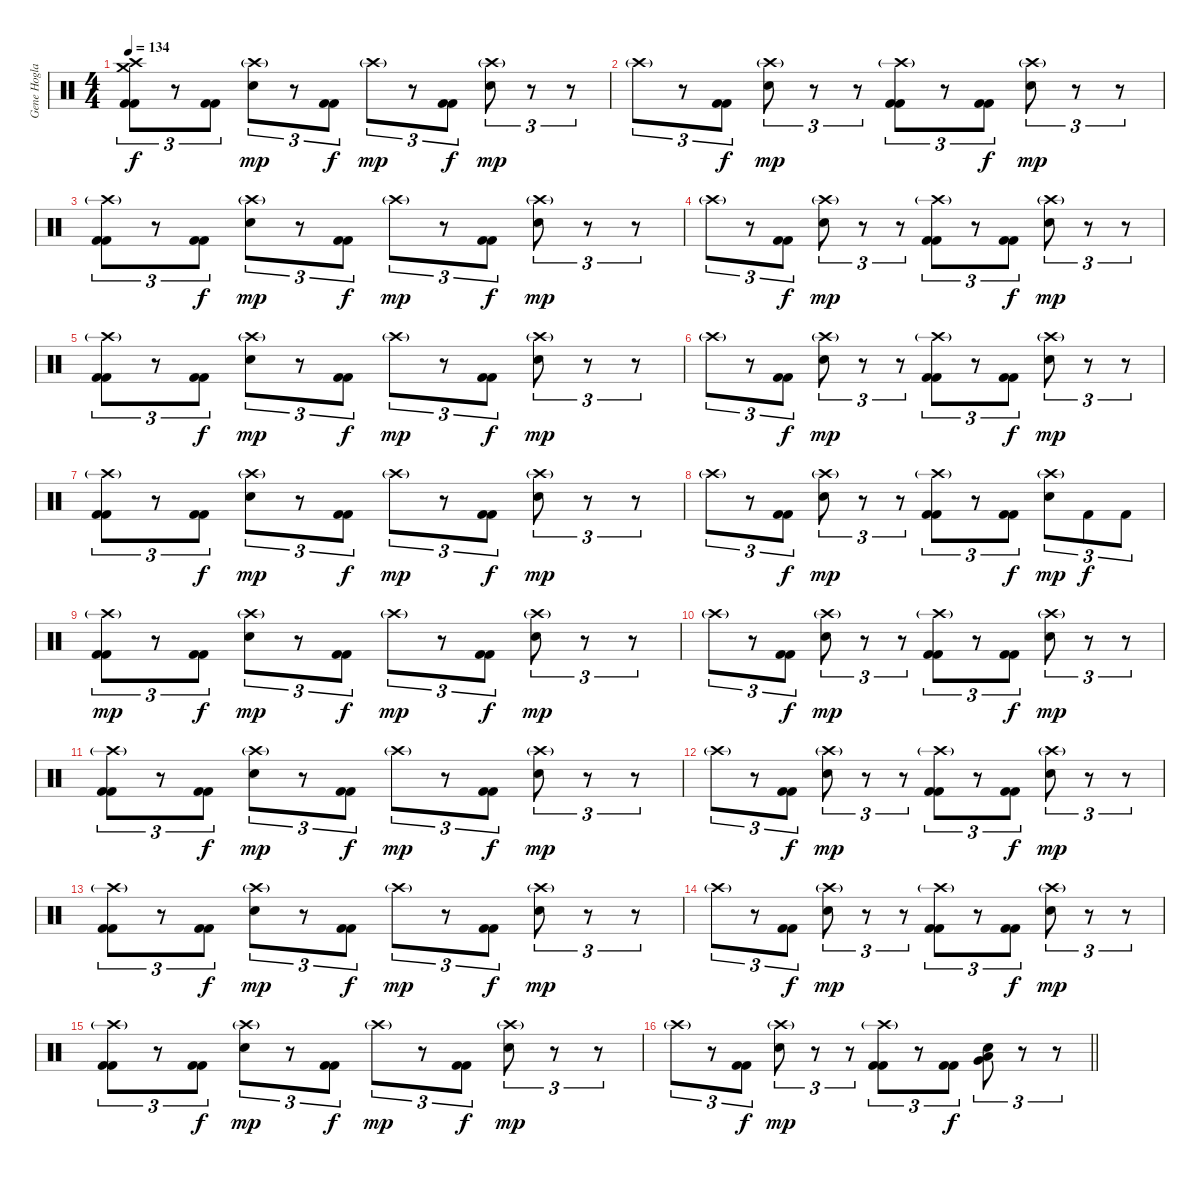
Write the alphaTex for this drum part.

\track ("Gene Hoglan" "Gene Hogla") {instrument percussion}
\staff {score}
\articulation defaults
\ts (4 4)
\tempo 134
\clef neutral
\ks c
("Crash high (hit)" "Crash medium (hit)" "Kick (hit) 2" "Kick (hit) 2").8{tu (3 2) dy f} r.8{tu (3 2)} ("Kick (hit) 2" "Kick (hit) 2").8{tu (3 2)} ("Crash high (hit)"{g} "Electric Snare (hit)").8{tu (3 2) dy mp} r.8{tu (3 2)} ("Kick (hit) 2" "Kick (hit) 2").8{tu (3 2) dy f} "Crash high (hit)"{g}.8{tu (3 2) dy mp} r.8{tu (3 2)} ("Kick (hit) 2" "Kick (hit) 2").8{tu (3 2) dy f} ("Crash high (hit)"{g} "Electric Snare (hit)").8{tu (3 2) dy mp} r.8{tu (3 2)} r.8{tu (3 2)} |
"Crash high (hit)"{g}.8{tu (3 2)} r.8{tu (3 2)} ("Kick (hit) 2" "Kick (hit) 2").8{tu (3 2) dy f} ("Crash high (hit)"{g} "Electric Snare (hit)").8{tu (3 2) dy mp} r.8{tu (3 2)} r.8{tu (3 2)} ("Crash high (hit)"{g} "Kick (hit) 2" "Kick (hit) 2").8{tu (3 2)} r.8{tu (3 2)} ("Kick (hit) 2" "Kick (hit) 2").8{tu (3 2) dy f} ("Crash high (hit)"{g} "Electric Snare (hit)").8{tu (3 2) dy mp} r.8{tu (3 2)} r.8{tu (3 2)} |
("Crash high (hit)"{g} "Kick (hit) 2" "Kick (hit) 2").8{tu (3 2)} r.8{tu (3 2)} ("Kick (hit) 2" "Kick (hit) 2").8{tu (3 2) dy f} ("Crash high (hit)"{g} "Electric Snare (hit)").8{tu (3 2) dy mp} r.8{tu (3 2)} ("Kick (hit) 2" "Kick (hit) 2").8{tu (3 2) dy f} "Crash high (hit)"{g}.8{tu (3 2) dy mp} r.8{tu (3 2)} ("Kick (hit) 2" "Kick (hit) 2").8{tu (3 2) dy f} ("Crash high (hit)"{g} "Electric Snare (hit)").8{tu (3 2) dy mp} r.8{tu (3 2)} r.8{tu (3 2)} |
"Crash high (hit)"{g}.8{tu (3 2)} r.8{tu (3 2)} ("Kick (hit) 2" "Kick (hit) 2").8{tu (3 2) dy f} ("Crash high (hit)"{g} "Electric Snare (hit)").8{tu (3 2) dy mp} r.8{tu (3 2)} r.8{tu (3 2)} ("Crash high (hit)"{g} "Kick (hit) 2" "Kick (hit) 2").8{tu (3 2)} r.8{tu (3 2)} ("Kick (hit) 2" "Kick (hit) 2").8{tu (3 2) dy f} ("Crash high (hit)"{g} "Electric Snare (hit)").8{tu (3 2) dy mp} r.8{tu (3 2)} r.8{tu (3 2)} |
("Crash high (hit)"{g} "Kick (hit) 2" "Kick (hit) 2").8{tu (3 2)} r.8{tu (3 2)} ("Kick (hit) 2" "Kick (hit) 2").8{tu (3 2) dy f} ("Crash high (hit)"{g} "Electric Snare (hit)").8{tu (3 2) dy mp} r.8{tu (3 2)} ("Kick (hit) 2" "Kick (hit) 2").8{tu (3 2) dy f} "Crash high (hit)"{g}.8{tu (3 2) dy mp} r.8{tu (3 2)} ("Kick (hit) 2" "Kick (hit) 2").8{tu (3 2) dy f} ("Crash high (hit)"{g} "Electric Snare (hit)").8{tu (3 2) dy mp} r.8{tu (3 2)} r.8{tu (3 2)} |
"Crash high (hit)"{g}.8{tu (3 2)} r.8{tu (3 2)} ("Kick (hit) 2" "Kick (hit) 2").8{tu (3 2) dy f} ("Crash high (hit)"{g} "Electric Snare (hit)").8{tu (3 2) dy mp} r.8{tu (3 2)} r.8{tu (3 2)} ("Crash high (hit)"{g} "Kick (hit) 2" "Kick (hit) 2").8{tu (3 2)} r.8{tu (3 2)} ("Kick (hit) 2" "Kick (hit) 2").8{tu (3 2) dy f} ("Crash high (hit)"{g} "Electric Snare (hit)").8{tu (3 2) dy mp} r.8{tu (3 2)} r.8{tu (3 2)} |
("Crash high (hit)"{g} "Kick (hit) 2" "Kick (hit) 2").8{tu (3 2)} r.8{tu (3 2)} ("Kick (hit) 2" "Kick (hit) 2").8{tu (3 2) dy f} ("Crash high (hit)"{g} "Electric Snare (hit)").8{tu (3 2) dy mp} r.8{tu (3 2)} ("Kick (hit) 2" "Kick (hit) 2").8{tu (3 2) dy f} "Crash high (hit)"{g}.8{tu (3 2) dy mp} r.8{tu (3 2)} ("Kick (hit) 2" "Kick (hit) 2").8{tu (3 2) dy f} ("Crash high (hit)"{g} "Electric Snare (hit)").8{tu (3 2) dy mp} r.8{tu (3 2)} r.8{tu (3 2)} |
"Crash high (hit)"{g}.8{tu (3 2)} r.8{tu (3 2)} ("Kick (hit) 2" "Kick (hit) 2").8{tu (3 2) dy f} ("Crash high (hit)"{g} "Electric Snare (hit)").8{tu (3 2) dy mp} r.8{tu (3 2)} r.8{tu (3 2)} ("Crash high (hit)"{g} "Kick (hit) 2" "Kick (hit) 2").8{tu (3 2)} r.8{tu (3 2)} ("Kick (hit) 2" "Kick (hit) 2").8{tu (3 2) dy f} ("Crash high (hit)"{g} "Electric Snare (hit)").8{tu (3 2) dy mp} "Kick (hit) 2".8{tu (3 2) dy f} "Kick (hit) 2".8{tu (3 2)} |
("Crash high (hit)"{g} "Kick (hit) 2" "Kick (hit) 2").8{tu (3 2) dy mp} r.8{tu (3 2)} ("Kick (hit) 2" "Kick (hit) 2").8{tu (3 2) dy f} ("Crash high (hit)"{g} "Electric Snare (hit)").8{tu (3 2) dy mp} r.8{tu (3 2)} ("Kick (hit) 2" "Kick (hit) 2").8{tu (3 2) dy f} "Crash high (hit)"{g}.8{tu (3 2) dy mp} r.8{tu (3 2)} ("Kick (hit) 2" "Kick (hit) 2").8{tu (3 2) dy f} ("Crash high (hit)"{g} "Electric Snare (hit)").8{tu (3 2) dy mp} r.8{tu (3 2)} r.8{tu (3 2)} |
"Crash high (hit)"{g}.8{tu (3 2)} r.8{tu (3 2)} ("Kick (hit) 2" "Kick (hit) 2").8{tu (3 2) dy f} ("Crash high (hit)"{g} "Electric Snare (hit)").8{tu (3 2) dy mp} r.8{tu (3 2)} r.8{tu (3 2)} ("Crash high (hit)"{g} "Kick (hit) 2" "Kick (hit) 2").8{tu (3 2)} r.8{tu (3 2)} ("Kick (hit) 2" "Kick (hit) 2").8{tu (3 2) dy f} ("Crash high (hit)"{g} "Electric Snare (hit)").8{tu (3 2) dy mp} r.8{tu (3 2)} r.8{tu (3 2)} |
("Crash high (hit)"{g} "Kick (hit) 2" "Kick (hit) 2").8{tu (3 2)} r.8{tu (3 2)} ("Kick (hit) 2" "Kick (hit) 2").8{tu (3 2) dy f} ("Crash high (hit)"{g} "Electric Snare (hit)").8{tu (3 2) dy mp} r.8{tu (3 2)} ("Kick (hit) 2" "Kick (hit) 2").8{tu (3 2) dy f} "Crash high (hit)"{g}.8{tu (3 2) dy mp} r.8{tu (3 2)} ("Kick (hit) 2" "Kick (hit) 2").8{tu (3 2) dy f} ("Crash high (hit)"{g} "Electric Snare (hit)").8{tu (3 2) dy mp} r.8{tu (3 2)} r.8{tu (3 2)} |
"Crash high (hit)"{g}.8{tu (3 2)} r.8{tu (3 2)} ("Kick (hit) 2" "Kick (hit) 2").8{tu (3 2) dy f} ("Crash high (hit)"{g} "Electric Snare (hit)").8{tu (3 2) dy mp} r.8{tu (3 2)} r.8{tu (3 2)} ("Crash high (hit)"{g} "Kick (hit) 2" "Kick (hit) 2").8{tu (3 2)} r.8{tu (3 2)} ("Kick (hit) 2" "Kick (hit) 2").8{tu (3 2) dy f} ("Crash high (hit)"{g} "Electric Snare (hit)").8{tu (3 2) dy mp} r.8{tu (3 2)} r.8{tu (3 2)} |
("Crash high (hit)"{g} "Kick (hit) 2" "Kick (hit) 2").8{tu (3 2)} r.8{tu (3 2)} ("Kick (hit) 2" "Kick (hit) 2").8{tu (3 2) dy f} ("Crash high (hit)"{g} "Electric Snare (hit)").8{tu (3 2) dy mp} r.8{tu (3 2)} ("Kick (hit) 2" "Kick (hit) 2").8{tu (3 2) dy f} "Crash high (hit)"{g}.8{tu (3 2) dy mp} r.8{tu (3 2)} ("Kick (hit) 2" "Kick (hit) 2").8{tu (3 2) dy f} ("Crash high (hit)"{g} "Electric Snare (hit)").8{tu (3 2) dy mp} r.8{tu (3 2)} r.8{tu (3 2)} |
"Crash high (hit)"{g}.8{tu (3 2)} r.8{tu (3 2)} ("Kick (hit) 2" "Kick (hit) 2").8{tu (3 2) dy f} ("Crash high (hit)"{g} "Electric Snare (hit)").8{tu (3 2) dy mp} r.8{tu (3 2)} r.8{tu (3 2)} ("Crash high (hit)"{g} "Kick (hit) 2" "Kick (hit) 2").8{tu (3 2)} r.8{tu (3 2)} ("Kick (hit) 2" "Kick (hit) 2").8{tu (3 2) dy f} ("Crash high (hit)"{g} "Electric Snare (hit)").8{tu (3 2) dy mp} r.8{tu (3 2)} r.8{tu (3 2)} |
("Crash high (hit)"{g} "Kick (hit) 2" "Kick (hit) 2").8{tu (3 2)} r.8{tu (3 2)} ("Kick (hit) 2" "Kick (hit) 2").8{tu (3 2) dy f} ("Crash high (hit)"{g} "Electric Snare (hit)").8{tu (3 2) dy mp} r.8{tu (3 2)} ("Kick (hit) 2" "Kick (hit) 2").8{tu (3 2) dy f} "Crash high (hit)"{g}.8{tu (3 2) dy mp} r.8{tu (3 2)} ("Kick (hit) 2" "Kick (hit) 2").8{tu (3 2) dy f} ("Crash high (hit)"{g} "Electric Snare (hit)").8{tu (3 2) dy mp} r.8{tu (3 2)} r.8{tu (3 2)} |
\barLineRight lightlight "Crash high (hit)"{g}.8{tu (3 2)}
r.8{tu (3 2)} ("Kick (hit) 2" "Kick (hit) 2").8{tu (3 2) dy f} ("Crash high (hit)"{g} "Electric Snare (hit)").8{tu (3 2) dy mp} r.8{tu (3 2)} r.8{tu (3 2)} ("Crash high (hit)"{g} "Kick (hit) 2" "Kick (hit) 2").8{tu (3 2)} r.8{tu (3 2)} ("Kick (hit) 2" "Kick (hit) 2").8{tu (3 2) dy f} ("Electric Snare (hit)" "Very Low Tom (hit)" "Low Floor Tom (hit)").8{tu (3 2)} r.8{tu (3 2)} r.8{tu (3 2)}
